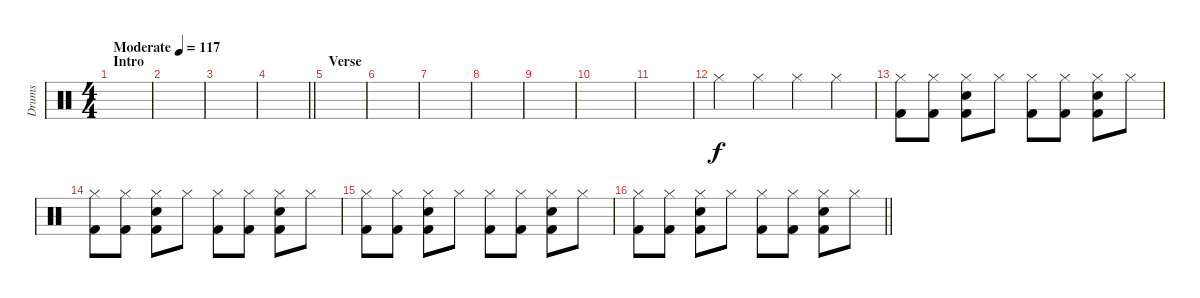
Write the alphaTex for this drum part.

\track ("Drums" "Drums") {instrument percussion}
\staff {score}
\articulation defaults
\ts (4 4)
\section ("" "Intro")
\tempo (117 "Moderate")
\clef neutral
\ks c
|
|
|
\barLineRight lightlight
|
\section ("" "Verse")
|
|
|
|
|
|
|
"Hi-Hat (closed)".4 "Hi-Hat (closed)".4 "Hi-Hat (closed)".4 "Hi-Hat (closed)".4 |
("Kick (hit) 2" "Hi-Hat (closed)").8{volume 4} ("Kick (hit) 2" "Hi-Hat (closed)").8 ("Kick (hit) 2" "Hi-Hat (closed)" "Snare (hit) 2").8 "Hi-Hat (closed)".8 ("Kick (hit) 2" "Hi-Hat (closed)").8 ("Kick (hit) 2" "Hi-Hat (closed)").8 ("Kick (hit) 2" "Hi-Hat (closed)" "Snare (hit) 2").8 "Hi-Hat (closed)".8 |
("Kick (hit) 2" "Hi-Hat (closed)").8 ("Kick (hit) 2" "Hi-Hat (closed)").8 ("Kick (hit) 2" "Hi-Hat (closed)" "Snare (hit) 2").8 "Hi-Hat (closed)".8 ("Kick (hit) 2" "Hi-Hat (closed)").8 ("Kick (hit) 2" "Hi-Hat (closed)").8 ("Kick (hit) 2" "Hi-Hat (closed)" "Snare (hit) 2").8 "Hi-Hat (closed)".8 |
("Kick (hit) 2" "Hi-Hat (closed)").8 ("Kick (hit) 2" "Hi-Hat (closed)").8 ("Kick (hit) 2" "Hi-Hat (closed)" "Snare (hit) 2").8 "Hi-Hat (closed)".8 ("Kick (hit) 2" "Hi-Hat (closed)").8 ("Kick (hit) 2" "Hi-Hat (closed)").8 ("Kick (hit) 2" "Hi-Hat (closed)" "Snare (hit) 2").8 "Hi-Hat (closed)".8 |
\barLineRight lightlight
("Kick (hit) 2" "Hi-Hat (closed)").8 ("Kick (hit) 2" "Hi-Hat (closed)").8 ("Kick (hit) 2" "Hi-Hat (closed)" "Snare (hit) 2").8 "Hi-Hat (closed)".8 ("Kick (hit) 2" "Hi-Hat (closed)").8 ("Kick (hit) 2" "Hi-Hat (closed)").8 ("Kick (hit) 2" "Hi-Hat (closed)" "Snare (hit) 2").8 "Hi-Hat (closed)".8
